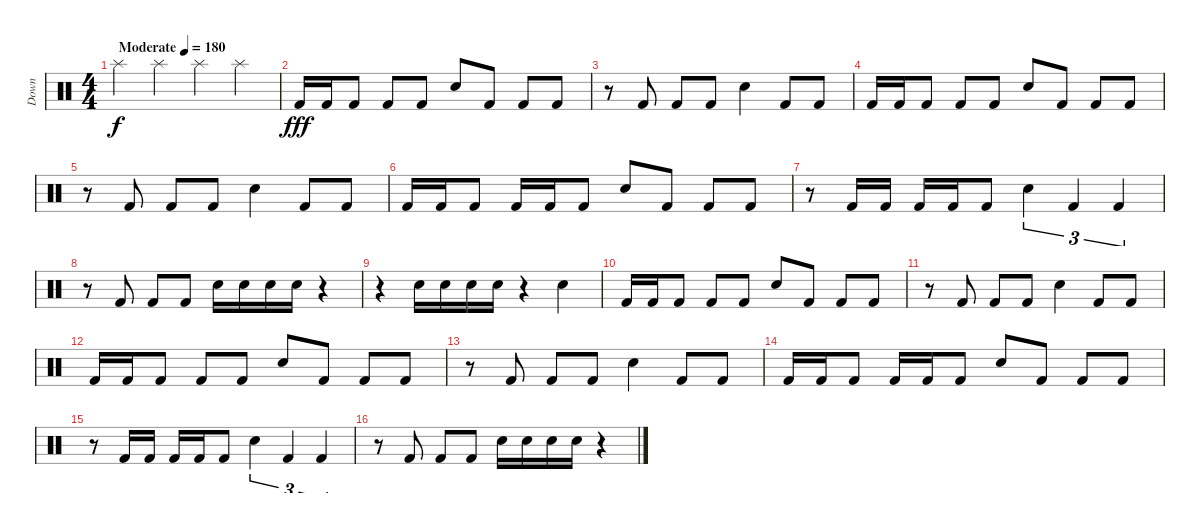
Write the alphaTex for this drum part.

\track ("Down" "Down") {instrument percussion}
\staff {score}
\articulation defaults
\ts (4 4)
\tempo (180 "Moderate")
\clef neutral
\ks c "Splash (hit)".4{dy f} "Splash (hit)".4 "Splash (hit)".4 "Splash (hit)".4
|
"Kick (hit) 2".16{dy fff} "Kick (hit) 2".16 "Kick (hit) 2".8 "Kick (hit) 2".8 "Kick (hit) 2".8 "Electric Snare (hit)".8 "Kick (hit) 2".8 "Kick (hit) 2".8 "Kick (hit) 2".8 |
r.8 "Kick (hit) 2".8 "Kick (hit) 2".8 "Kick (hit) 2".8 "Electric Snare (hit)".4 "Kick (hit) 2".8 "Kick (hit) 2".8 |
"Kick (hit) 2".16 "Kick (hit) 2".16 "Kick (hit) 2".8 "Kick (hit) 2".8 "Kick (hit) 2".8 "Electric Snare (hit)".8 "Kick (hit) 2".8 "Kick (hit) 2".8 "Kick (hit) 2".8 |
r.8 "Kick (hit) 2".8 "Kick (hit) 2".8 "Kick (hit) 2".8 "Electric Snare (hit)".4 "Kick (hit) 2".8 "Kick (hit) 2".8 |
"Kick (hit) 2".16 "Kick (hit) 2".16 "Kick (hit) 2".8 "Kick (hit) 2".16 "Kick (hit) 2".16 "Kick (hit) 2".8 "Electric Snare (hit)".8 "Kick (hit) 2".8 "Kick (hit) 2".8 "Kick (hit) 2".8 |
r.8 "Kick (hit) 2".16 "Kick (hit) 2".16 "Kick (hit) 2".16 "Kick (hit) 2".16 "Kick (hit) 2".8 "Electric Snare (hit)".4{tu (3 2)} "Kick (hit) 2".4{tu (3 2)} "Kick (hit) 2".4{tu (3 2)} |
r.8 "Kick (hit) 2".8 "Kick (hit) 2".8 "Kick (hit) 2".8 "Electric Snare (hit)".16 "Electric Snare (hit)".16 "Electric Snare (hit)".16 "Electric Snare (hit)".16 r.4 |
r.4 "Electric Snare (hit)".16 "Electric Snare (hit)".16 "Electric Snare (hit)".16 "Electric Snare (hit)".16 r.4 "Electric Snare (hit)".4 |
"Kick (hit) 2".16 "Kick (hit) 2".16 "Kick (hit) 2".8 "Kick (hit) 2".8 "Kick (hit) 2".8 "Electric Snare (hit)".8 "Kick (hit) 2".8 "Kick (hit) 2".8 "Kick (hit) 2".8 |
r.8 "Kick (hit) 2".8 "Kick (hit) 2".8 "Kick (hit) 2".8 "Electric Snare (hit)".4 "Kick (hit) 2".8 "Kick (hit) 2".8 |
"Kick (hit) 2".16 "Kick (hit) 2".16 "Kick (hit) 2".8 "Kick (hit) 2".8 "Kick (hit) 2".8 "Electric Snare (hit)".8 "Kick (hit) 2".8 "Kick (hit) 2".8 "Kick (hit) 2".8 |
r.8 "Kick (hit) 2".8 "Kick (hit) 2".8 "Kick (hit) 2".8 "Electric Snare (hit)".4 "Kick (hit) 2".8 "Kick (hit) 2".8 |
"Kick (hit) 2".16 "Kick (hit) 2".16 "Kick (hit) 2".8 "Kick (hit) 2".16 "Kick (hit) 2".16 "Kick (hit) 2".8 "Electric Snare (hit)".8 "Kick (hit) 2".8 "Kick (hit) 2".8 "Kick (hit) 2".8 |
r.8 "Kick (hit) 2".16 "Kick (hit) 2".16 "Kick (hit) 2".16 "Kick (hit) 2".16 "Kick (hit) 2".8 "Electric Snare (hit)".4{tu (3 2)} "Kick (hit) 2".4{tu (3 2)} "Kick (hit) 2".4{tu (3 2)} |
r.8 "Kick (hit) 2".8 "Kick (hit) 2".8 "Kick (hit) 2".8 "Electric Snare (hit)".16 "Electric Snare (hit)".16 "Electric Snare (hit)".16 "Electric Snare (hit)".16 r.4
